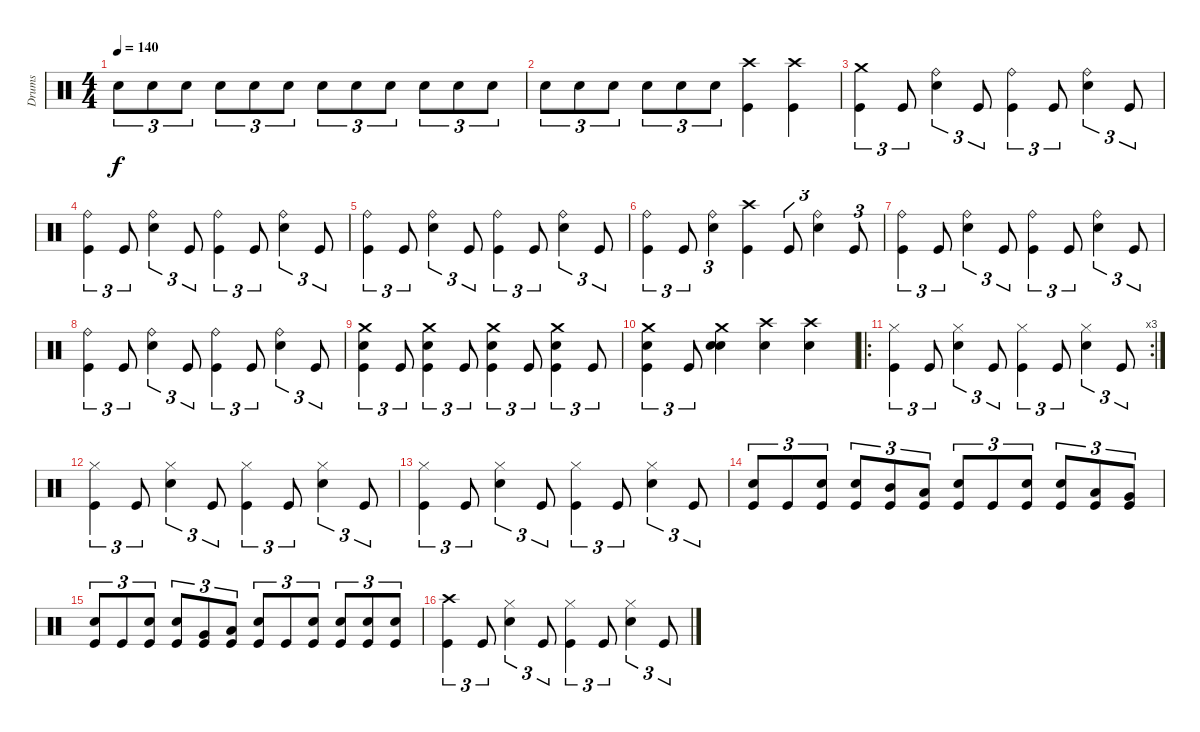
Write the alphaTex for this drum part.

\track ("Drums" "Drums") {instrument percussion}
\staff {score}
\articulation defaults
\ts (4 4)
\tempo 140
\clef neutral
\ks c "Snare (hit) 2".8{tu (3 2) dy f} "Snare (hit) 2".8{tu (3 2)} "Snare (hit) 2".8{tu (3 2)} "Snare (hit) 2".8{tu (3 2)} "Snare (hit) 2".8{tu (3 2)} "Snare (hit) 2".8{tu (3 2)} "Snare (hit) 2".8{tu (3 2)} "Snare (hit) 2".8{tu (3 2)} "Snare (hit) 2".8{tu (3 2)} "Snare (hit) 2".8{tu (3 2)} "Snare (hit) 2".8{tu (3 2)} "Snare (hit) 2".8{tu (3 2)}
|
"Snare (hit) 2".8{tu (3 2)} "Snare (hit) 2".8{tu (3 2)} "Snare (hit) 2".8{tu (3 2)} "Snare (hit) 2".8{tu (3 2)} "Snare (hit) 2".8{tu (3 2)} "Snare (hit) 2".8{tu (3 2)} ("Crash high (hit)" "Kick (hit)").4 ("Crash high (hit)" "Kick (hit)").4 |
("Crash medium (hit)" "Kick (hit)").4{tu (3 2)} "Kick (hit)".8{tu (3 2)} ("Ride (bell)" "Snare (hit) 2").4{tu (3 2)} "Kick (hit)".8{tu (3 2)} ("Ride (bell)" "Kick (hit)").4{tu (3 2)} "Kick (hit)".8{tu (3 2)} ("Ride (bell)" "Snare (hit) 2").4{tu (3 2)} "Kick (hit)".8{tu (3 2)} |
("Ride (bell)" "Kick (hit)").4{tu (3 2)} "Kick (hit)".8{tu (3 2)} ("Ride (bell)" "Snare (hit) 2").4{tu (3 2)} "Kick (hit)".8{tu (3 2)} ("Ride (bell)" "Kick (hit)").4{tu (3 2)} "Kick (hit)".8{tu (3 2)} ("Ride (bell)" "Snare (hit) 2").4{tu (3 2)} "Kick (hit)".8{tu (3 2)} |
("Ride (bell)" "Kick (hit)").4{tu (3 2)} "Kick (hit)".8{tu (3 2)} ("Ride (bell)" "Snare (hit) 2").4{tu (3 2)} "Kick (hit)".8{tu (3 2)} ("Ride (bell)" "Kick (hit)").4{tu (3 2)} "Kick (hit)".8{tu (3 2)} ("Ride (bell)" "Snare (hit) 2").4{tu (3 2)} "Kick (hit)".8{tu (3 2)} |
("Ride (bell)" "Kick (hit)").4{tu (3 2)} "Kick (hit)".8{tu (3 2)} ("Ride (bell)" "Snare (hit) 2").4{tu (3 2)} ("Crash high (hit)" "Kick (hit)").4 "Kick (hit)".8{tu (3 2)} ("Ride (bell)" "Snare (hit) 2").4{tu (3 2)} "Kick (hit)".8{tu (3 2)} |
("Ride (bell)" "Kick (hit)").4{tu (3 2)} "Kick (hit)".8{tu (3 2)} ("Ride (bell)" "Snare (hit) 2").4{tu (3 2)} "Kick (hit)".8{tu (3 2)} ("Ride (bell)" "Kick (hit)").4{tu (3 2)} "Kick (hit)".8{tu (3 2)} ("Ride (bell)" "Snare (hit) 2").4{tu (3 2)} "Kick (hit)".8{tu (3 2)} |
("Ride (bell)" "Kick (hit)").4{tu (3 2)} "Kick (hit)".8{tu (3 2)} ("Ride (bell)" "Snare (hit) 2").4{tu (3 2)} "Kick (hit)".8{tu (3 2)} ("Ride (bell)" "Kick (hit)").4{tu (3 2)} "Kick (hit)".8{tu (3 2)} ("Ride (bell)" "Snare (hit) 2").4{tu (3 2)} "Kick (hit)".8{tu (3 2)} |
("Crash medium (hit)" "Snare (hit) 2" "Kick (hit)").4{tu (3 2)} "Kick (hit)".8{tu (3 2)} ("Crash medium (hit)" "Snare (hit) 2" "Kick (hit)").4{tu (3 2)} "Kick (hit)".8{tu (3 2)} ("Crash medium (hit)" "Snare (hit) 2" "Kick (hit)").4{tu (3 2)} "Kick (hit)".8{tu (3 2)} ("Crash medium (hit)" "Snare (hit) 2" "Kick (hit)").4{tu (3 2)} "Kick (hit)".8{tu (3 2)} |
("Crash medium (hit)" "Snare (hit) 2" "Kick (hit)").4{tu (3 2)} "Kick (hit)".8{tu (3 2)} ("Crash medium (hit)" "Snare (hit) 2" "Snare (hit) 2").4 ("Crash high (hit)" "Snare (hit) 2").4 ("Crash high (hit)" "Snare (hit) 2").4 |
\ro
\rc 3
("Hi-Hat (closed)" "Kick (hit)").4{tu (3 2)} "Kick (hit)".8{tu (3 2)} ("Hi-Hat (closed)" "Snare (hit) 2").4{tu (3 2)} "Kick (hit)".8{tu (3 2)} ("Hi-Hat (closed)" "Kick (hit)").4{tu (3 2)} "Kick (hit)".8{tu (3 2)} ("Hi-Hat (closed)" "Snare (hit) 2").4{tu (3 2)} "Kick (hit)".8{tu (3 2)} |
("Hi-Hat (closed)" "Kick (hit)").4{tu (3 2)} "Kick (hit)".8{tu (3 2)} ("Hi-Hat (closed)" "Snare (hit) 2").4{tu (3 2)} "Kick (hit)".8{tu (3 2)} ("Hi-Hat (closed)" "Kick (hit)").4{tu (3 2)} "Kick (hit)".8{tu (3 2)} ("Hi-Hat (closed)" "Snare (hit) 2").4{tu (3 2)} "Kick (hit)".8{tu (3 2)} |
("Hi-Hat (closed)" "Kick (hit)").4{tu (3 2)} "Kick (hit)".8{tu (3 2)} ("Hi-Hat (closed)" "Snare (hit) 2").4{tu (3 2)} "Kick (hit)".8{tu (3 2)} ("Hi-Hat (closed)" "Kick (hit)").4{tu (3 2)} "Kick (hit)".8{tu (3 2)} ("Hi-Hat (closed)" "Snare (hit) 2").4{tu (3 2)} "Kick (hit)".8{tu (3 2)} |
("Snare (hit) 2" "Kick (hit)").8{tu (3 2)} "Kick (hit)".8{tu (3 2)} ("Snare (hit) 2" "Kick (hit)").8{tu (3 2)} ("Snare (hit) 2" "Kick (hit)").8{tu (3 2)} ("Mid Tom (hit)" "Kick (hit)").8{tu (3 2)} ("Low Tom (hit)" "Kick (hit)").8{tu (3 2)} ("Snare (hit) 2" "Kick (hit)").8{tu (3 2)} "Kick (hit)".8{tu (3 2)} ("Snare (hit) 2" "Kick (hit)").8{tu (3 2)} ("Snare (hit) 2" "Kick (hit)").8{tu (3 2)} ("Low Tom (hit)" "Kick (hit)").8{tu (3 2)} ("Very Low Tom (hit)" "Kick (hit)").8{tu (3 2)} |
("Snare (hit) 2" "Kick (hit)").8{tu (3 2)} "Kick (hit)".8{tu (3 2)} ("Snare (hit) 2" "Kick (hit)").8{tu (3 2)} ("Snare (hit) 2" "Kick (hit)").8{tu (3 2)} ("Very Low Tom (hit)" "Kick (hit)").8{tu (3 2)} ("Low Floor Tom (hit)" "Kick (hit)").8{tu (3 2)} ("Snare (hit) 2" "Kick (hit)").8{tu (3 2)} "Kick (hit)".8{tu (3 2)} ("Snare (hit) 2" "Kick (hit)").8{tu (3 2)} ("Snare (hit) 2" "Kick (hit)").8{tu (3 2)} ("Snare (hit) 2" "Kick (hit)").8{tu (3 2)} ("Snare (hit) 2" "Kick (hit)").8{tu (3 2)} |
("Crash high (hit)" "Kick (hit)").4{tu (3 2)} "Kick (hit)".8{tu (3 2)} ("Hi-Hat (closed)" "Snare (hit) 2").4{tu (3 2)} "Kick (hit)".8{tu (3 2)} ("Hi-Hat (closed)" "Kick (hit)").4{tu (3 2)} "Kick (hit)".8{tu (3 2)} ("Hi-Hat (closed)" "Snare (hit) 2").4{tu (3 2)} "Kick (hit)".8{tu (3 2)}
